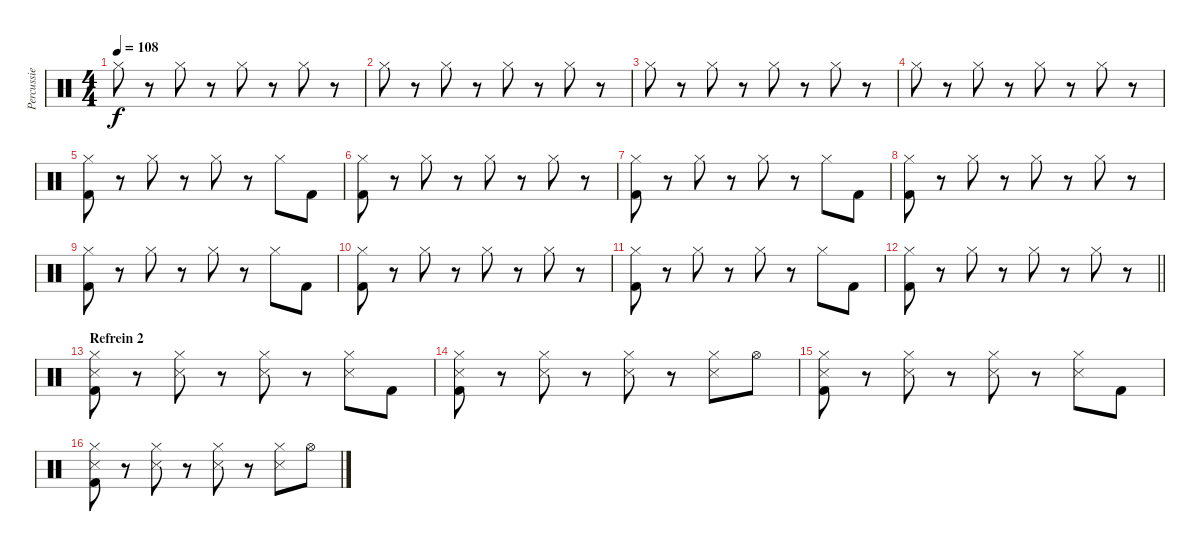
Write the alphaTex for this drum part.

\track ("Percussie" "Percussie") {instrument percussion}
\staff {score}
\articulation defaults
\ts (4 4)
\tempo 108
\clef neutral
\ks c "Hi-Hat (closed)".8{dy f}
r.8 "Hi-Hat (closed)".8 r.8 "Hi-Hat (closed)".8 r.8 "Hi-Hat (closed)".8 r.8 |
"Hi-Hat (closed)".8 r.8 "Hi-Hat (closed)".8 r.8 "Hi-Hat (closed)".8 r.8 "Hi-Hat (closed)".8 r.8 |
"Hi-Hat (closed)".8 r.8 "Hi-Hat (closed)".8 r.8 "Hi-Hat (closed)".8 r.8 "Hi-Hat (closed)".8 r.8 |
"Hi-Hat (closed)".8 r.8 "Hi-Hat (closed)".8 r.8 "Hi-Hat (closed)".8 r.8 "Hi-Hat (closed)".8 r.8 |
("Hi-Hat (closed)" "Kick (hit) 2").8 r.8 "Hi-Hat (closed)".8 r.8 "Hi-Hat (closed)".8 r.8 "Hi-Hat (closed)".8 "Kick (hit) 2".8 |
("Hi-Hat (closed)" "Kick (hit) 2").8 r.8 "Hi-Hat (closed)".8 r.8 "Hi-Hat (closed)".8 r.8 "Hi-Hat (closed)".8 r.8 |
("Hi-Hat (closed)" "Kick (hit) 2").8 r.8 "Hi-Hat (closed)".8 r.8 "Hi-Hat (closed)".8 r.8 "Hi-Hat (closed)".8 "Kick (hit) 2".8 |
("Hi-Hat (closed)" "Kick (hit) 2").8 r.8 "Hi-Hat (closed)".8 r.8 "Hi-Hat (closed)".8 r.8 "Hi-Hat (closed)".8 r.8 |
("Hi-Hat (closed)" "Kick (hit) 2").8 r.8 "Hi-Hat (closed)".8 r.8 "Hi-Hat (closed)".8 r.8 "Hi-Hat (closed)".8 "Kick (hit) 2".8 |
("Hi-Hat (closed)" "Kick (hit) 2").8 r.8 "Hi-Hat (closed)".8 r.8 "Hi-Hat (closed)".8 r.8 "Hi-Hat (closed)".8 r.8 |
("Hi-Hat (closed)" "Kick (hit) 2").8 r.8 "Hi-Hat (closed)".8 r.8 "Hi-Hat (closed)".8 r.8 "Hi-Hat (closed)".8 "Kick (hit) 2".8 |
\barLineRight lightlight
("Hi-Hat (closed)" "Kick (hit) 2").8 r.8 "Hi-Hat (closed)".8 r.8 "Hi-Hat (closed)".8 r.8 "Hi-Hat (closed)".8 r.8 |
\section ("" "Refrein 2")
("Hi-Hat (closed)" "Metronome (hit)" "Kick (hit) 2").8 r.8 ("Hi-Hat (closed)" "Metronome (hit)").8 r.8 ("Hi-Hat (closed)" "Metronome (hit)").8 r.8 ("Hi-Hat (closed)" "Metronome (hit)").8 "Kick (hit) 2".8 |
("Hi-Hat (closed)" "Metronome (hit)" "Kick (hit) 2").8 r.8 ("Hi-Hat (closed)" "Metronome (hit)").8 r.8 ("Hi-Hat (closed)" "Metronome (hit)").8 r.8 ("Hi-Hat (closed)" "Metronome (hit)").8 "Hi-Hat (open)".8 |
("Hi-Hat (closed)" "Metronome (hit)" "Kick (hit) 2").8 r.8 ("Hi-Hat (closed)" "Metronome (hit)").8 r.8 ("Hi-Hat (closed)" "Metronome (hit)").8 r.8 ("Hi-Hat (closed)" "Metronome (hit)").8 "Kick (hit) 2".8 |
("Hi-Hat (closed)" "Metronome (hit)" "Kick (hit) 2").8 r.8 ("Hi-Hat (closed)" "Metronome (hit)").8 r.8 ("Hi-Hat (closed)" "Metronome (hit)").8 r.8 ("Hi-Hat (closed)" "Metronome (hit)").8 "Hi-Hat (open)".8
